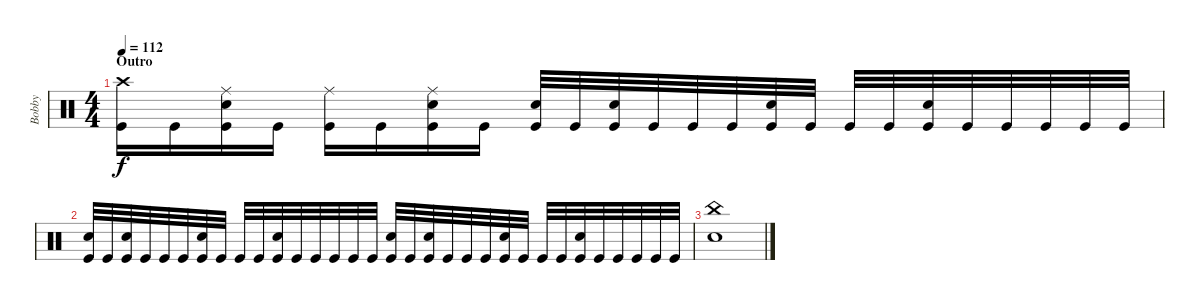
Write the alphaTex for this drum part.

\track ("Bobby" "Bobby") {instrument percussion}
\staff {score}
\articulation defaults
\ts (4 4)
\section ("" "Outro")
\tempo 112
\clef neutral
\ks c
("Crash high (hit)" "Kick (hit)").16{dy f} "Kick (hit)".16 ("Ride (middle)" "Electric Snare (hit)" "Kick (hit)").16 "Kick (hit)".16 ("Ride (middle)" "Kick (hit)").16 "Kick (hit)".16 ("Ride (middle)" "Electric Snare (hit)" "Kick (hit)").16 "Kick (hit)".16 ("Electric Snare (hit)" "Kick (hit)").32 "Kick (hit)".32 ("Electric Snare (hit)" "Kick (hit)").32 "Kick (hit)".32 "Kick (hit)".32 "Kick (hit)".32 ("Electric Snare (hit)" "Kick (hit)").32 "Kick (hit)".32 "Kick (hit)".32 "Kick (hit)".32 ("Electric Snare (hit)" "Kick (hit)").32 "Kick (hit)".32 "Kick (hit)".32 "Kick (hit)".32 "Kick (hit)".32 "Kick (hit)".32 |
("Electric Snare (hit)" "Kick (hit)").32 "Kick (hit)".32 ("Electric Snare (hit)" "Kick (hit)").32 "Kick (hit)".32 "Kick (hit)".32 "Kick (hit)".32 ("Electric Snare (hit)" "Kick (hit)").32 "Kick (hit)".32 "Kick (hit)".32 "Kick (hit)".32 ("Electric Snare (hit)" "Kick (hit)").32 "Kick (hit)".32 "Kick (hit)".32 "Kick (hit)".32 "Kick (hit)".32 "Kick (hit)".32 ("Electric Snare (hit)" "Kick (hit)").32 "Kick (hit)".32 ("Electric Snare (hit)" "Kick (hit)").32 "Kick (hit)".32 "Kick (hit)".32 "Kick (hit)".32 ("Electric Snare (hit)" "Kick (hit)").32 "Kick (hit)".32 "Kick (hit)".32 "Kick (hit)".32 ("Electric Snare (hit)" "Kick (hit)").32 "Kick (hit)".32 "Kick (hit)".32 "Kick (hit)".32 "Kick (hit)".32 "Kick (hit)".32 |
("China (hit)" "Electric Snare (hit)").1
